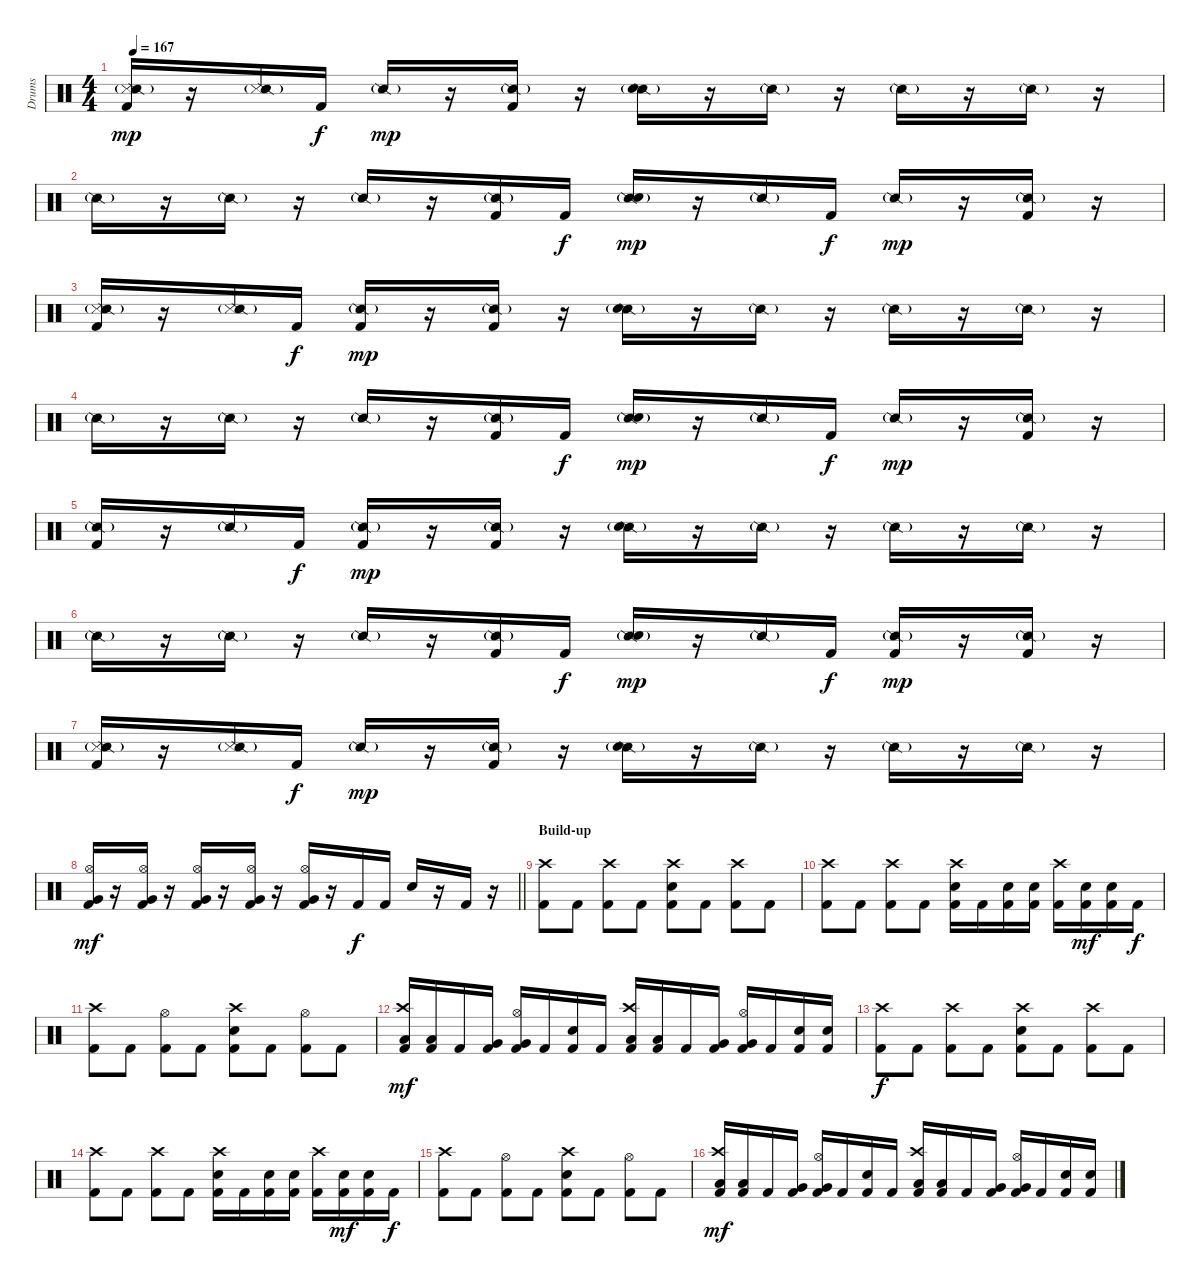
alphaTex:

\track ("Drums" "Drums") {instrument percussion}
\staff {score}
\articulation defaults
\ts (4 4)
\tempo 167
\clef neutral
\ks c
("Snare (side stick) 3" "Snare (side stick) 2"{g} "Kick (hit) 2").16{dy mp} r.16 ("Snare (side stick) 3" "Snare (side stick) 2"{g}).16 "Kick (hit) 2".16{dy f} "Snare (side stick) 2"{g}.16{dy mp} r.16 ("Snare (side stick) 2"{g} "Kick (hit) 2").16 r.16 ("Snare (side stick) 2"{g} "Electric Snare (hit)").16 r.16 "Snare (side stick) 2"{g}.16 r.16 "Snare (side stick) 2"{g}.16 r.16 "Snare (side stick) 2"{g}.16 r.16 |
"Snare (side stick) 2"{g}.16 r.16 "Snare (side stick) 2"{g}.16 r.16 "Snare (side stick) 2"{g}.16 r.16 ("Snare (side stick) 2"{g} "Kick (hit) 2").16 "Kick (hit) 2".16{dy f} ("Snare (side stick) 2"{g} "Electric Snare (hit)").16{dy mp} r.16 "Snare (side stick) 2"{g}.16 "Kick (hit) 2".16{dy f} "Snare (side stick) 2"{g}.16{dy mp} r.16 ("Snare (side stick) 2"{g} "Kick (hit) 2").16 r.16 |
("Snare (side stick) 3" "Snare (side stick) 2"{g} "Kick (hit) 2").16 r.16 ("Snare (side stick) 3" "Snare (side stick) 2"{g}).16 "Kick (hit) 2".16{dy f} ("Snare (side stick) 2"{g} "Kick (hit) 2").16{dy mp} r.16 ("Snare (side stick) 2"{g} "Kick (hit) 2").16 r.16 ("Snare (side stick) 2"{g} "Electric Snare (hit)").16 r.16 "Snare (side stick) 2"{g}.16 r.16 "Snare (side stick) 2"{g}.16 r.16 "Snare (side stick) 2"{g}.16 r.16 |
"Snare (side stick) 2"{g}.16 r.16 "Snare (side stick) 2"{g}.16 r.16 "Snare (side stick) 2"{g}.16 r.16 ("Snare (side stick) 2"{g} "Kick (hit) 2").16 "Kick (hit) 2".16{dy f} ("Snare (side stick) 2"{g} "Electric Snare (hit)").16{dy mp} r.16 "Snare (side stick) 2"{g}.16 "Kick (hit) 2".16{dy f} "Snare (side stick) 2"{g}.16{dy mp} r.16 ("Snare (side stick) 2"{g} "Kick (hit) 2").16 r.16 |
("Snare (side stick) 2"{g} "Kick (hit) 2").16 r.16 "Snare (side stick) 2"{g}.16 "Kick (hit) 2".16{dy f} ("Snare (side stick) 2"{g} "Kick (hit) 2").16{dy mp} r.16 ("Snare (side stick) 2"{g} "Kick (hit) 2").16 r.16 ("Snare (side stick) 2"{g} "Electric Snare (hit)").16 r.16 "Snare (side stick) 2"{g}.16 r.16 "Snare (side stick) 2"{g}.16 r.16 "Snare (side stick) 2"{g}.16 r.16 |
"Snare (side stick) 2"{g}.16 r.16 "Snare (side stick) 2"{g}.16 r.16 "Snare (side stick) 2"{g}.16 r.16 ("Snare (side stick) 2"{g} "Kick (hit) 2").16 "Kick (hit) 2".16{dy f} ("Snare (side stick) 2"{g} "Electric Snare (hit)").16{dy mp} r.16 "Snare (side stick) 2"{g}.16 "Kick (hit) 2".16{dy f} ("Snare (side stick) 2"{g} "Kick (hit) 2").16{dy mp} r.16 ("Snare (side stick) 2"{g} "Kick (hit) 2").16 r.16 |
("Snare (side stick) 3" "Snare (side stick) 2"{g} "Kick (hit) 2").16 r.16 ("Snare (side stick) 3" "Snare (side stick) 2"{g}).16 "Kick (hit) 2".16{dy f} "Snare (side stick) 2"{g}.16{dy mp} r.16 ("Snare (side stick) 2"{g} "Kick (hit) 2").16 r.16 ("Snare (side stick) 2"{g} "Electric Snare (hit)").16 r.16 "Snare (side stick) 2"{g}.16 r.16 "Snare (side stick) 2"{g}.16 r.16 "Snare (side stick) 2"{g}.16 r.16 |
\barLineRight lightlight
("Hi-Hat (open)" "Very Low Tom (hit)" "Kick (hit) 2").16{dy mf} r.16 ("Hi-Hat (open)" "Very Low Tom (hit)" "Kick (hit) 2").16 r.16 ("Hi-Hat (open)" "Very Low Tom (hit)" "Kick (hit) 2").16 r.16 ("Hi-Hat (open)" "Very Low Tom (hit)" "Kick (hit) 2").16 r.16 ("Hi-Hat (open)" "Very Low Tom (hit)" "Kick (hit) 2").16 r.16 "Kick (hit) 2".16{dy f} "Kick (hit) 2".16 "Electric Snare (hit)".16 r.16 "Kick (hit) 2".16 r.16 |
\section ("" "Build-up")
("Crash high (hit)" "Kick (hit) 2").8 "Kick (hit) 2".8 ("Crash high (hit)" "Kick (hit) 2").8 "Kick (hit) 2".8 ("Crash high (hit)" "Electric Snare (hit)" "Kick (hit) 2").8 "Kick (hit) 2".8 ("Crash high (hit)" "Kick (hit) 2").8 "Kick (hit) 2".8 |
("Crash high (hit)" "Kick (hit) 2").8 "Kick (hit) 2".8 ("Crash high (hit)" "Kick (hit) 2").8 "Kick (hit) 2".8 ("Crash high (hit)" "Electric Snare (hit)" "Kick (hit) 2").16 "Kick (hit) 2".16 ("Electric Snare (hit)" "Kick (hit) 2").16 ("Electric Snare (hit)" "Kick (hit) 2").16 ("Crash high (hit)" "Kick (hit) 2").16 ("Electric Snare (hit)" "Kick (hit) 2").16{dy mf} ("Electric Snare (hit)" "Kick (hit) 2").16 "Kick (hit) 2".16{dy f} |
("Crash high (hit)" "Kick (hit) 2").8 "Kick (hit) 2".8 ("Hi-Hat (open)" "Kick (hit) 2").8 "Kick (hit) 2".8 ("Crash high (hit)" "Electric Snare (hit)" "Kick (hit) 2").8 "Kick (hit) 2".8 ("Hi-Hat (open)" "Kick (hit) 2").8 "Kick (hit) 2".8 |
("Crash high (hit)" "Low Tom (hit)" "Kick (hit) 2").16{dy mf} ("Low Tom (hit)" "Kick (hit) 2").16 "Kick (hit) 2".16 ("Very Low Tom (hit)" "Kick (hit) 2").16 ("Hi-Hat (open)" "Very Low Tom (hit)" "Kick (hit) 2").16 "Kick (hit) 2".16 ("Electric Snare (hit)" "Kick (hit) 2").16 "Kick (hit) 2".16 ("Crash high (hit)" "Low Tom (hit)" "Kick (hit) 2").16 ("Low Tom (hit)" "Kick (hit) 2").16 "Kick (hit) 2".16 ("Very Low Tom (hit)" "Kick (hit) 2").16 ("Hi-Hat (open)" "Very Low Tom (hit)" "Kick (hit) 2").16 "Kick (hit) 2".16 ("Electric Snare (hit)" "Kick (hit) 2").16 ("Electric Snare (hit)" "Kick (hit) 2").16 |
("Crash high (hit)" "Kick (hit) 2").8{dy f} "Kick (hit) 2".8 ("Crash high (hit)" "Kick (hit) 2").8 "Kick (hit) 2".8 ("Crash high (hit)" "Electric Snare (hit)" "Kick (hit) 2").8 "Kick (hit) 2".8 ("Crash high (hit)" "Kick (hit) 2").8 "Kick (hit) 2".8 |
("Crash high (hit)" "Kick (hit) 2").8 "Kick (hit) 2".8 ("Crash high (hit)" "Kick (hit) 2").8 "Kick (hit) 2".8 ("Crash high (hit)" "Electric Snare (hit)" "Kick (hit) 2").16 "Kick (hit) 2".16 ("Electric Snare (hit)" "Kick (hit) 2").16 ("Electric Snare (hit)" "Kick (hit) 2").16 ("Crash high (hit)" "Kick (hit) 2").16 ("Electric Snare (hit)" "Kick (hit) 2").16{dy mf} ("Electric Snare (hit)" "Kick (hit) 2").16 "Kick (hit) 2".16{dy f} |
("Crash high (hit)" "Kick (hit) 2").8 "Kick (hit) 2".8 ("Hi-Hat (open)" "Kick (hit) 2").8 "Kick (hit) 2".8 ("Crash high (hit)" "Electric Snare (hit)" "Kick (hit) 2").8 "Kick (hit) 2".8 ("Hi-Hat (open)" "Kick (hit) 2").8 "Kick (hit) 2".8 |
("Crash high (hit)" "Low Tom (hit)" "Kick (hit) 2").16{dy mf} ("Low Tom (hit)" "Kick (hit) 2").16 "Kick (hit) 2".16 ("Very Low Tom (hit)" "Kick (hit) 2").16 ("Hi-Hat (open)" "Very Low Tom (hit)" "Kick (hit) 2").16 "Kick (hit) 2".16 ("Electric Snare (hit)" "Kick (hit) 2").16 "Kick (hit) 2".16 ("Crash high (hit)" "Low Tom (hit)" "Kick (hit) 2").16 ("Low Tom (hit)" "Kick (hit) 2").16 "Kick (hit) 2".16 ("Very Low Tom (hit)" "Kick (hit) 2").16 ("Hi-Hat (open)" "Very Low Tom (hit)" "Kick (hit) 2").16 "Kick (hit) 2".16 ("Electric Snare (hit)" "Kick (hit) 2").16 ("Electric Snare (hit)" "Kick (hit) 2").16
